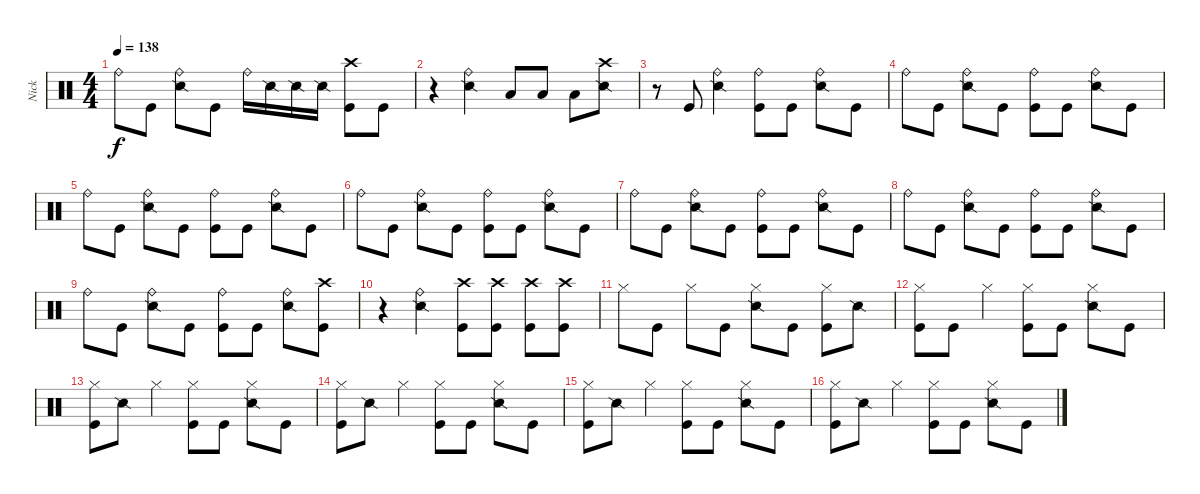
\track ("Nick" "Nick") {instrument percussion}
\staff {score}
\articulation defaults
\ts (4 4)
\tempo 138
\clef neutral
\ks c "Ride (bell)".8{dy f} "Kick (hit)".8
("Ride (bell)" "Snare (side stick) 2").8 "Kick (hit)".8 "Ride (bell)".16 "Snare (side stick) 2".16 "Snare (side stick) 2".16 "Snare (side stick) 2".16 ("Crash high (hit)" "Kick (hit)").8 "Kick (hit)".8 |
r.4 ("Ride (bell)" "Snare (side stick) 2").4 "Low Tom (hit)".8 "Low Tom (hit)".8 "Low Floor Tom (hit)".8 ("Crash high (hit)" "Snare (side stick) 2").8 |
r.8 "Kick (hit)".8 ("Ride (bell)" "Snare (side stick) 2").4 ("Ride (bell)" "Kick (hit)").8 "Kick (hit)".8 ("Ride (bell)" "Snare (side stick) 2").8 "Kick (hit)".8 |
"Ride (bell)".8 "Kick (hit)".8 ("Ride (bell)" "Snare (side stick) 2").8 "Kick (hit)".8 ("Ride (bell)" "Kick (hit)").8 "Kick (hit)".8 ("Ride (bell)" "Snare (side stick) 2").8 "Kick (hit)".8 |
"Ride (bell)".8 "Kick (hit)".8 ("Ride (bell)" "Snare (side stick) 2").8 "Kick (hit)".8 ("Ride (bell)" "Kick (hit)").8 "Kick (hit)".8 ("Ride (bell)" "Snare (side stick) 2").8 "Kick (hit)".8 |
"Ride (bell)".8 "Kick (hit)".8 ("Ride (bell)" "Snare (side stick) 2").8 "Kick (hit)".8 ("Ride (bell)" "Kick (hit)").8 "Kick (hit)".8 ("Ride (bell)" "Snare (side stick) 2").8 "Kick (hit)".8 |
"Ride (bell)".8 "Kick (hit)".8 ("Ride (bell)" "Snare (side stick) 2").8 "Kick (hit)".8 ("Ride (bell)" "Kick (hit)").8 "Kick (hit)".8 ("Ride (bell)" "Snare (side stick) 2").8 "Kick (hit)".8 |
"Ride (bell)".8 "Kick (hit)".8 ("Ride (bell)" "Snare (side stick) 2").8 "Kick (hit)".8 ("Ride (bell)" "Kick (hit)").8 "Kick (hit)".8 ("Ride (bell)" "Snare (side stick) 2").8 "Kick (hit)".8 |
"Ride (bell)".8 "Kick (hit)".8 ("Ride (bell)" "Snare (side stick) 2").8 "Kick (hit)".8 ("Ride (bell)" "Kick (hit)").8 "Kick (hit)".8 ("Ride (bell)" "Snare (side stick) 2").8 ("Crash high (hit)" "Kick (hit)").8 |
r.4 ("Ride (bell)" "Snare (side stick) 2").4 ("Crash high (hit)" "Kick (hit)").8 ("Crash high (hit)" "Kick (hit)").8 ("Crash high (hit)" "Kick (hit)").8 ("Crash high (hit)" "Kick (hit)").8 |
"Hi-Hat (closed)".8 "Kick (hit)".8 "Hi-Hat (closed)".8 "Kick (hit)".8 ("Hi-Hat (closed)" "Snare (side stick) 2").8 "Kick (hit)".8 ("Hi-Hat (closed)" "Kick (hit)").8 "Snare (side stick) 2".8 |
("Hi-Hat (closed)" "Kick (hit)").8 "Kick (hit)".8 "Hi-Hat (closed)".4 ("Hi-Hat (closed)" "Kick (hit)").8 "Kick (hit)".8 ("Hi-Hat (closed)" "Snare (side stick) 2").8 "Kick (hit)".8 |
("Hi-Hat (closed)" "Kick (hit)").8 "Snare (side stick) 2".8 "Hi-Hat (closed)".4 ("Hi-Hat (closed)" "Kick (hit)").8 "Kick (hit)".8 ("Hi-Hat (closed)" "Snare (side stick) 2").8 "Kick (hit)".8 |
("Hi-Hat (closed)" "Kick (hit)").8 "Snare (side stick) 2".8 "Hi-Hat (closed)".4 ("Hi-Hat (closed)" "Kick (hit)").8 "Kick (hit)".8 ("Hi-Hat (closed)" "Snare (side stick) 2").8 "Kick (hit)".8 |
("Hi-Hat (closed)" "Kick (hit)").8 "Snare (side stick) 2".8 "Hi-Hat (closed)".4 ("Hi-Hat (closed)" "Kick (hit)").8 "Kick (hit)".8 ("Hi-Hat (closed)" "Snare (side stick) 2").8 "Kick (hit)".8 |
("Hi-Hat (closed)" "Kick (hit)").8 "Snare (side stick) 2".8 "Hi-Hat (closed)".4 ("Hi-Hat (closed)" "Kick (hit)").8 "Kick (hit)".8 ("Hi-Hat (closed)" "Snare (side stick) 2").8 "Kick (hit)".8
